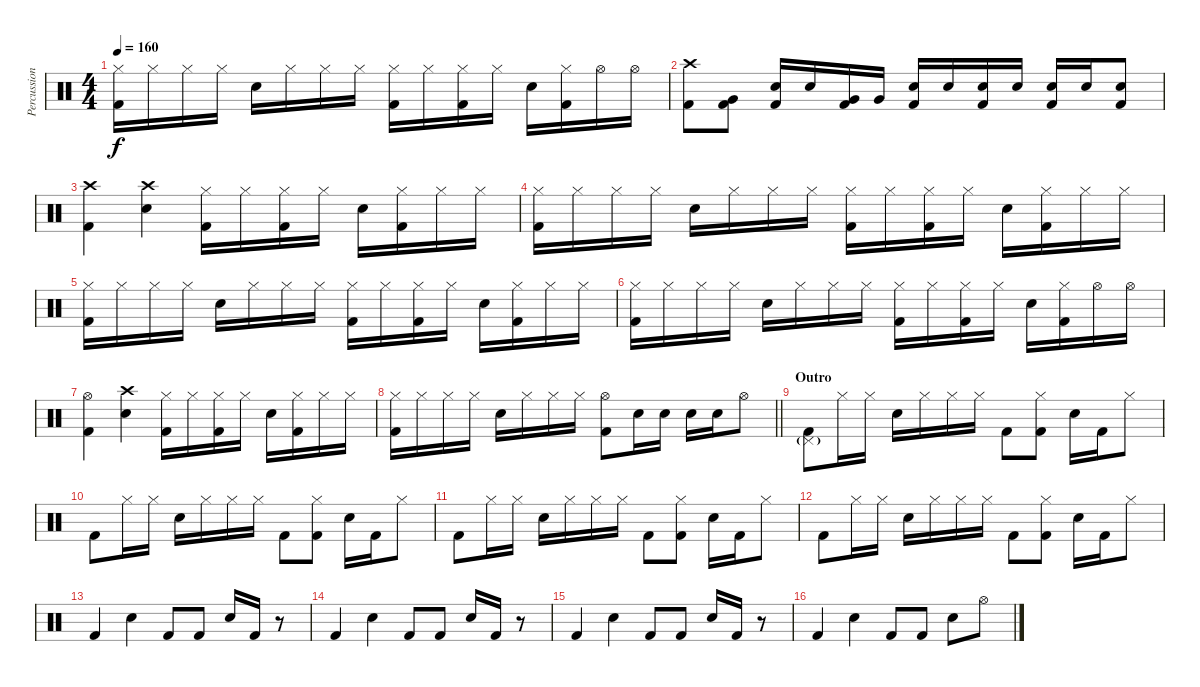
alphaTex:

\track ("Percussion" "Percussion") {instrument percussion}
\staff {score}
\articulation defaults
\ts (4 4)
\tempo 160
\clef neutral
\ks c
("Hi-Hat (closed)" "Kick (hit) 2").16{dy f} "Hi-Hat (closed)".16 "Hi-Hat (closed)".16 "Hi-Hat (closed)".16 "Electric Snare (hit)".16 "Hi-Hat (closed)".16 "Hi-Hat (closed)".16 "Hi-Hat (closed)".16 ("Hi-Hat (closed)" "Kick (hit) 2").16 "Hi-Hat (closed)".16 ("Hi-Hat (closed)" "Kick (hit) 2").16 "Hi-Hat (closed)".16 "Electric Snare (hit)".16 ("Hi-Hat (closed)" "Kick (hit) 2").16 "Hi-Hat (open)".16 "Hi-Hat (open)".16 |
("Crash high (hit)" "Kick (hit) 2").8 ("Very Low Tom (hit)" "Kick (hit) 2").8 ("Electric Snare (hit)" "Kick (hit) 2").16 "Electric Snare (hit)".16 ("Very Low Tom (hit)" "Kick (hit) 2").16 "Very Low Tom (hit)".16 ("Electric Snare (hit)" "Kick (hit) 2").16 "Electric Snare (hit)".16 ("Electric Snare (hit)" "Kick (hit) 2").16 "Electric Snare (hit)".16 ("Electric Snare (hit)" "Kick (hit) 2").16 "Electric Snare (hit)".16 ("Electric Snare (hit)" "Kick (hit) 2").8 |
("Crash high (hit)" "Kick (hit) 2").4 ("Crash high (hit)" "Electric Snare (hit)").4 ("Hi-Hat (closed)" "Kick (hit) 2").16 "Hi-Hat (closed)".16 ("Hi-Hat (closed)" "Kick (hit) 2").16 "Hi-Hat (closed)".16 "Electric Snare (hit)".16 ("Hi-Hat (closed)" "Kick (hit) 2").16 "Hi-Hat (closed)".16 "Hi-Hat (closed)".16 |
("Hi-Hat (closed)" "Kick (hit) 2").16 "Hi-Hat (closed)".16 "Hi-Hat (closed)".16 "Hi-Hat (closed)".16 "Electric Snare (hit)".16 "Hi-Hat (closed)".16 "Hi-Hat (closed)".16 "Hi-Hat (closed)".16 ("Hi-Hat (closed)" "Kick (hit) 2").16 "Hi-Hat (closed)".16 ("Hi-Hat (closed)" "Kick (hit) 2").16 "Hi-Hat (closed)".16 "Electric Snare (hit)".16 ("Hi-Hat (closed)" "Kick (hit) 2").16 "Hi-Hat (closed)".16 "Hi-Hat (closed)".16 |
("Hi-Hat (closed)" "Kick (hit) 2").16 "Hi-Hat (closed)".16 "Hi-Hat (closed)".16 "Hi-Hat (closed)".16 "Electric Snare (hit)".16 "Hi-Hat (closed)".16 "Hi-Hat (closed)".16 "Hi-Hat (closed)".16 ("Hi-Hat (closed)" "Kick (hit) 2").16 "Hi-Hat (closed)".16 ("Hi-Hat (closed)" "Kick (hit) 2").16 "Hi-Hat (closed)".16 "Electric Snare (hit)".16 ("Hi-Hat (closed)" "Kick (hit) 2").16 "Hi-Hat (closed)".16 "Hi-Hat (closed)".16 |
("Hi-Hat (closed)" "Kick (hit) 2").16 "Hi-Hat (closed)".16 "Hi-Hat (closed)".16 "Hi-Hat (closed)".16 "Electric Snare (hit)".16 "Hi-Hat (closed)".16 "Hi-Hat (closed)".16 "Hi-Hat (closed)".16 ("Hi-Hat (closed)" "Kick (hit) 2").16 "Hi-Hat (closed)".16 ("Hi-Hat (closed)" "Kick (hit) 2").16 "Hi-Hat (closed)".16 "Electric Snare (hit)".16 ("Hi-Hat (closed)" "Kick (hit) 2").16 "Hi-Hat (open)".16 "Hi-Hat (open)".16 |
("Hi-Hat (open)" "Kick (hit) 2").4 ("Crash high (hit)" "Electric Snare (hit)").4 ("Hi-Hat (closed)" "Kick (hit) 2").16 "Hi-Hat (closed)".16 ("Hi-Hat (closed)" "Kick (hit) 2").16 "Hi-Hat (closed)".16 "Electric Snare (hit)".16 ("Hi-Hat (closed)" "Kick (hit) 2").16 "Hi-Hat (closed)".16 "Hi-Hat (closed)".16 |
\barLineRight lightlight
("Hi-Hat (closed)" "Kick (hit) 2").16 "Hi-Hat (closed)".16 "Hi-Hat (closed)".16 "Hi-Hat (closed)".16 "Electric Snare (hit)".16 "Hi-Hat (closed)".16 "Hi-Hat (closed)".16 "Hi-Hat (closed)".16 ("Hi-Hat (open)" "Kick (hit) 2").8 "Electric Snare (hit)".16 "Electric Snare (hit)".16 "Electric Snare (hit)".16 "Electric Snare (hit)".16 "Hi-Hat (open)".8 |
\section ("" "Outro")
("Pedal Hi-Hat (hit)"{g} "Kick (hit) 2").8 "Hi-Hat (closed)".16 "Hi-Hat (closed)".16 "Electric Snare (hit)".16 "Hi-Hat (closed)".16 "Hi-Hat (closed)".16 "Hi-Hat (closed)".16 "Kick (hit) 2".8 ("Hi-Hat (closed)" "Kick (hit) 2").8 "Electric Snare (hit)".16 "Kick (hit) 2".16 "Hi-Hat (closed)".8 |
"Kick (hit) 2".8 "Hi-Hat (closed)".16 "Hi-Hat (closed)".16 "Electric Snare (hit)".16 "Hi-Hat (closed)".16 "Hi-Hat (closed)".16 "Hi-Hat (closed)".16 "Kick (hit) 2".8 ("Hi-Hat (closed)" "Kick (hit) 2").8 "Electric Snare (hit)".16 "Kick (hit) 2".16 "Hi-Hat (closed)".8 |
"Kick (hit) 2".8 "Hi-Hat (closed)".16 "Hi-Hat (closed)".16 "Electric Snare (hit)".16 "Hi-Hat (closed)".16 "Hi-Hat (closed)".16 "Hi-Hat (closed)".16 "Kick (hit) 2".8 ("Hi-Hat (closed)" "Kick (hit) 2").8 "Electric Snare (hit)".16 "Kick (hit) 2".16 "Hi-Hat (closed)".8 |
"Kick (hit) 2".8 "Hi-Hat (closed)".16 "Hi-Hat (closed)".16 "Electric Snare (hit)".16 "Hi-Hat (closed)".16 "Hi-Hat (closed)".16 "Hi-Hat (closed)".16 "Kick (hit) 2".8 ("Hi-Hat (closed)" "Kick (hit) 2").8 "Electric Snare (hit)".16 "Kick (hit) 2".16 "Hi-Hat (closed)".8 |
"Kick (hit) 2".4 "Electric Snare (hit)".4 "Kick (hit) 2".8 "Kick (hit) 2".8 "Electric Snare (hit)".16 "Kick (hit) 2".16 r.8 |
"Kick (hit) 2".4 "Electric Snare (hit)".4 "Kick (hit) 2".8 "Kick (hit) 2".8 "Electric Snare (hit)".16 "Kick (hit) 2".16 r.8 |
"Kick (hit) 2".4 "Electric Snare (hit)".4 "Kick (hit) 2".8 "Kick (hit) 2".8 "Electric Snare (hit)".16 "Kick (hit) 2".16 r.8 |
"Kick (hit) 2".4 "Electric Snare (hit)".4 "Kick (hit) 2".8 "Kick (hit) 2".8 "Electric Snare (hit)".8 "Hi-Hat (open)".8
